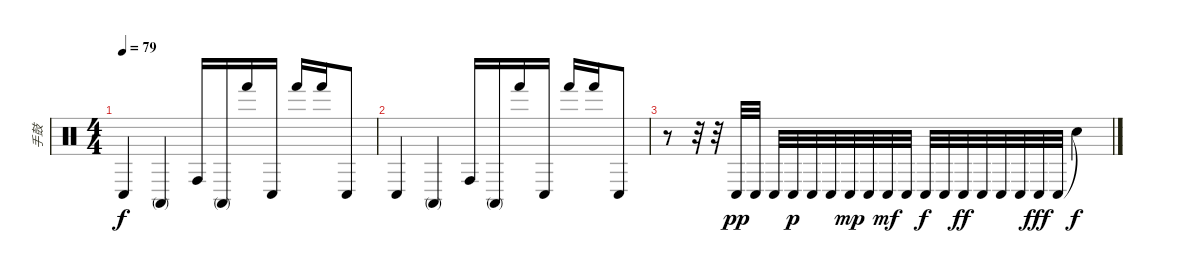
\track ("手鼓" "手鼓") {instrument percussion}
\staff {score}
\articulation defaults
\ts (4 4)
\tempo 79
\clef neutral
\ks c "Conga low (hit)".4{dy f} "Conga high (mute)".4 "Conga high (hit)".16 "Conga high (mute)".16 "Hand (hit)".16 "Conga low (hit)".16 "Hand (hit)".16 "Hand (hit)".16 "Conga low (hit)".8
|
"Conga low (hit)".4 "Conga high (mute)".4 "Conga high (hit)".16 "Conga high (mute)".16 "Hand (hit)".16 "Conga low (hit)".16 "Hand (hit)".16 "Hand (hit)".16 "Conga low (hit)".8 |
r.8 r.32 r.32 "Conga low (hit)".32{dy pp} "Conga low (hit)".32 "Conga low (hit)".32 "Conga low (hit)".32{dy p} "Conga low (hit)".32 "Conga low (hit)".32 "Conga low (hit)".32{dy mp} "Conga low (hit)".32 "Conga low (hit)".32{dy mf} "Conga low (hit)".32 "Conga low (hit)".32{dy f} "Conga low (hit)".32 "Conga low (hit)".32{dy ff} "Conga low (hit)".32 "Conga low (hit)".32 "Conga low (hit)".32 "Conga low (hit)".32{dy fff} "Conga low (hit)".32 "Snare (hit)"{t}.4{dy f}
